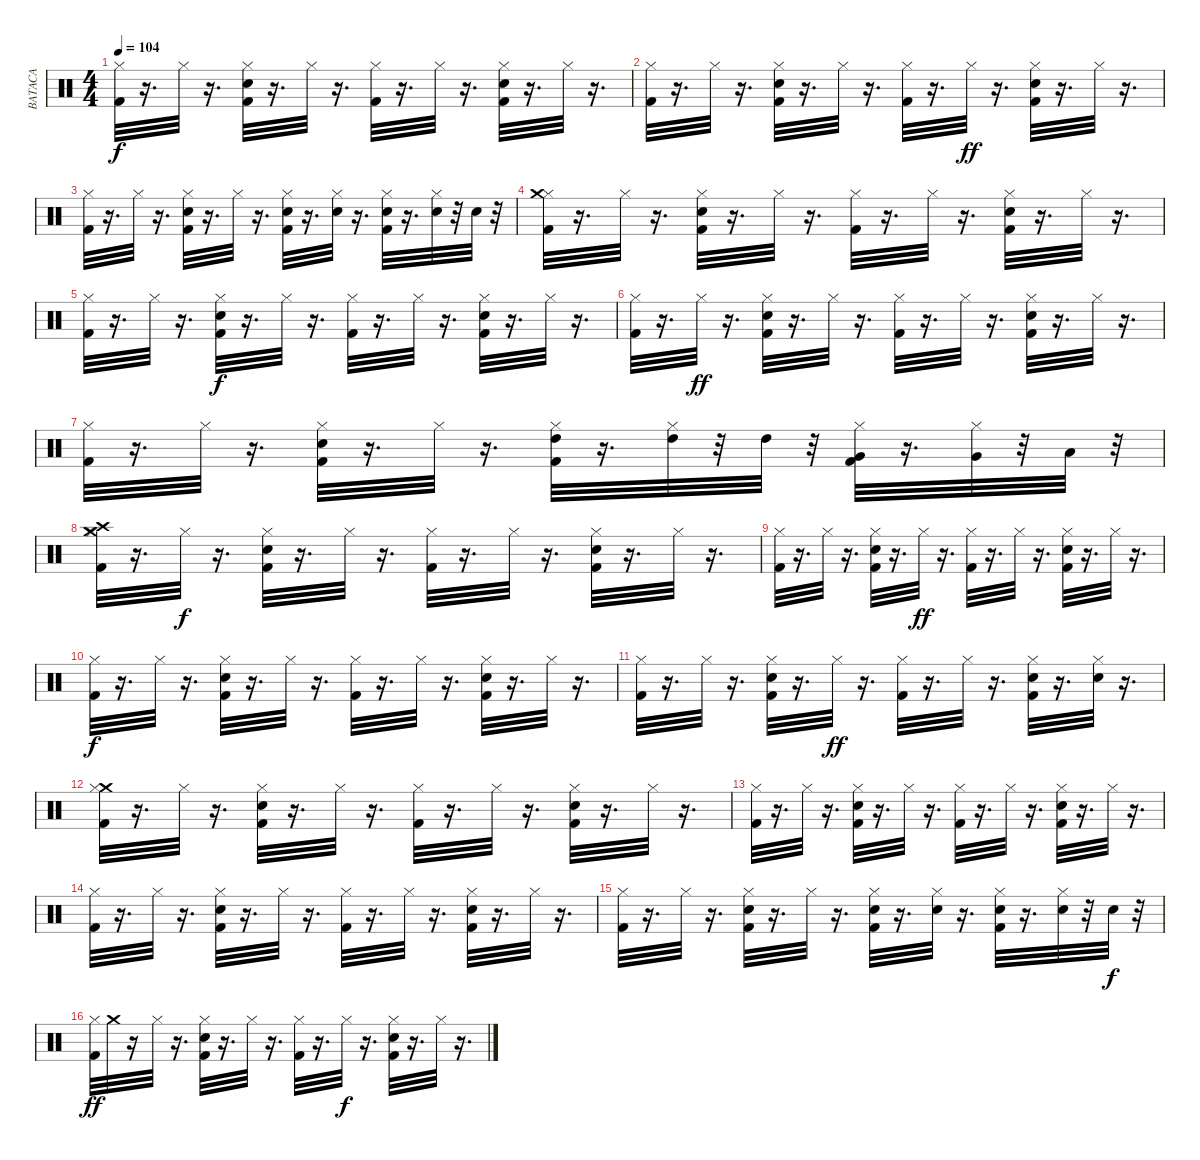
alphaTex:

\track ("BATACA" "BATACA") {instrument percussion}
\staff {score}
\articulation defaults
\ts (4 4)
\tempo 104
\clef neutral
\ks c
("Hi-Hat (closed)" "Kick (hit) 2").32{dy f} r.16{d} "Hi-Hat (closed)".32 r.16{d} ("Hi-Hat (closed)" "Kick (hit) 2" "Electric Snare (hit)").32 r.16{d} "Hi-Hat (closed)".32 r.16{d} ("Hi-Hat (closed)" "Kick (hit) 2").32 r.16{d} "Hi-Hat (closed)".32 r.16{d} ("Hi-Hat (closed)" "Kick (hit) 2" "Electric Snare (hit)").32 r.16{d} "Hi-Hat (closed)".32 r.16{d} |
("Hi-Hat (closed)" "Kick (hit) 2").32 r.16{d} "Hi-Hat (closed)".32 r.16{d} ("Hi-Hat (closed)" "Kick (hit) 2" "Electric Snare (hit)").32 r.16{d} "Hi-Hat (closed)".32 r.16{d} ("Hi-Hat (closed)" "Kick (hit) 2").32 r.16{d} "Hi-Hat (closed)".32{dy ff} r.16{d} ("Hi-Hat (closed)" "Kick (hit) 2" "Electric Snare (hit)").32 r.16{d} "Hi-Hat (closed)".32 r.16{d} |
("Hi-Hat (closed)" "Kick (hit) 2").32 r.16{d} "Hi-Hat (closed)".32 r.16{d} ("Hi-Hat (closed)" "Kick (hit) 2" "Electric Snare (hit)").32 r.16{d} "Hi-Hat (closed)".32 r.16{d} ("Hi-Hat (closed)" "Kick (hit) 2" "Electric Snare (hit)").32 r.16{d} ("Hi-Hat (closed)" "Electric Snare (hit)").32 r.16{d} ("Hi-Hat (closed)" "Kick (hit) 2" "Electric Snare (hit)").32 r.16{d} ("Hi-Hat (closed)" "Electric Snare (hit)").32 r.32 "Electric Snare (hit)".32 r.32 |
("Hi-Hat (closed)" "Kick (hit) 2" "Crash medium (hit)").32 r.16{d} "Hi-Hat (closed)".32 r.16{d} ("Hi-Hat (closed)" "Kick (hit) 2" "Electric Snare (hit)").32 r.16{d} "Hi-Hat (closed)".32 r.16{d} ("Hi-Hat (closed)" "Kick (hit) 2").32 r.16{d} "Hi-Hat (closed)".32 r.16{d} ("Hi-Hat (closed)" "Kick (hit) 2" "Electric Snare (hit)").32 r.16{d} "Hi-Hat (closed)".32 r.16{d} |
("Hi-Hat (closed)" "Kick (hit) 2").32 r.16{d} "Hi-Hat (closed)".32 r.16{d} ("Hi-Hat (closed)" "Kick (hit) 2" "Electric Snare (hit)").32{dy f} r.16{d} "Hi-Hat (closed)".32 r.16{d} ("Hi-Hat (closed)" "Kick (hit) 2").32 r.16{d} "Hi-Hat (closed)".32 r.16{d} ("Hi-Hat (closed)" "Kick (hit) 2" "Electric Snare (hit)").32 r.16{d} "Hi-Hat (closed)".32 r.16{d} |
("Hi-Hat (closed)" "Kick (hit) 2").32 r.16{d} "Hi-Hat (closed)".32{dy ff} r.16{d} ("Hi-Hat (closed)" "Kick (hit) 2" "Electric Snare (hit)").32 r.16{d} "Hi-Hat (closed)".32 r.16{d} ("Hi-Hat (closed)" "Kick (hit) 2").32 r.16{d} "Hi-Hat (closed)".32 r.16{d} ("Hi-Hat (closed)" "Kick (hit) 2" "Electric Snare (hit)").32 r.16{d} "Hi-Hat (closed)".32 r.16{d} |
("Hi-Hat (closed)" "Kick (hit) 2").32 r.16{d} "Hi-Hat (closed)".32 r.16{d} ("Hi-Hat (closed)" "Kick (hit) 2" "Electric Snare (hit)").32 r.16{d} "Hi-Hat (closed)".32 r.16{d} ("Hi-Hat (closed)" "Kick (hit) 2" "High Tom (hit)").32 r.16{d} ("Hi-Hat (closed)" "High Tom (hit)").32 r.32 "High Tom (hit)".32 r.32 ("Hi-Hat (closed)" "Kick (hit) 2" "Very Low Tom (hit)").32 r.16{d} ("Hi-Hat (closed)" "Very Low Tom (hit)").32 r.32 "Low Floor Tom (hit)".32 r.32 |
("Hi-Hat (closed)" "Kick (hit) 2" "Crash medium (hit)" "Crash high (hit)").32 r.16{d} "Hi-Hat (closed)".32{dy f} r.16{d} ("Hi-Hat (closed)" "Kick (hit) 2" "Electric Snare (hit)").32 r.16{d} "Hi-Hat (closed)".32 r.16{d} ("Hi-Hat (closed)" "Kick (hit) 2").32 r.16{d} "Hi-Hat (closed)".32 r.16{d} ("Hi-Hat (closed)" "Kick (hit) 2" "Electric Snare (hit)").32 r.16{d} "Hi-Hat (closed)".32 r.16{d} |
("Hi-Hat (closed)" "Kick (hit) 2").32 r.16{d} "Hi-Hat (closed)".32 r.16{d} ("Hi-Hat (closed)" "Kick (hit) 2" "Electric Snare (hit)").32 r.16{d} "Hi-Hat (closed)".32{dy ff} r.16{d} ("Hi-Hat (closed)" "Kick (hit) 2").32 r.16{d} "Hi-Hat (closed)".32 r.16{d} ("Hi-Hat (closed)" "Kick (hit) 2" "Electric Snare (hit)").32 r.16{d} "Hi-Hat (closed)".32 r.16{d} |
("Hi-Hat (closed)" "Kick (hit) 2").32{dy f} r.16{d} "Hi-Hat (closed)".32 r.16{d} ("Hi-Hat (closed)" "Kick (hit) 2" "Electric Snare (hit)").32 r.16{d} "Hi-Hat (closed)".32 r.16{d} ("Hi-Hat (closed)" "Kick (hit) 2").32 r.16{d} "Hi-Hat (closed)".32 r.16{d} ("Hi-Hat (closed)" "Kick (hit) 2" "Electric Snare (hit)").32 r.16{d} "Hi-Hat (closed)".32 r.16{d} |
("Hi-Hat (closed)" "Kick (hit) 2").32 r.16{d} "Hi-Hat (closed)".32 r.16{d} ("Hi-Hat (closed)" "Kick (hit) 2" "Electric Snare (hit)").32 r.16{d} "Hi-Hat (closed)".32{dy ff} r.16{d} ("Hi-Hat (closed)" "Kick (hit) 2").32 r.16{d} "Hi-Hat (closed)".32 r.16{d} ("Hi-Hat (closed)" "Kick (hit) 2" "Electric Snare (hit)").32 r.16{d} ("Hi-Hat (closed)" "Electric Snare (hit)").32 r.16{d} |
("Crash medium (hit)" "Hi-Hat (closed)" "Kick (hit) 2").32 r.16{d} "Hi-Hat (closed)".32 r.16{d} ("Hi-Hat (closed)" "Kick (hit) 2" "Electric Snare (hit)").32 r.16{d} "Hi-Hat (closed)".32 r.16{d} ("Hi-Hat (closed)" "Kick (hit) 2").32 r.16{d} "Hi-Hat (closed)".32 r.16{d} ("Hi-Hat (closed)" "Kick (hit) 2" "Electric Snare (hit)").32 r.16{d} "Hi-Hat (closed)".32 r.16{d} |
("Hi-Hat (closed)" "Kick (hit) 2").32 r.16{d} "Hi-Hat (closed)".32 r.16{d} ("Hi-Hat (closed)" "Kick (hit) 2" "Electric Snare (hit)").32 r.16{d} "Hi-Hat (closed)".32 r.16{d} ("Hi-Hat (closed)" "Kick (hit) 2").32 r.16{d} "Hi-Hat (closed)".32 r.16{d} ("Hi-Hat (closed)" "Kick (hit) 2" "Electric Snare (hit)").32 r.16{d} "Hi-Hat (closed)".32 r.16{d} |
("Hi-Hat (closed)" "Kick (hit) 2").32 r.16{d} "Hi-Hat (closed)".32 r.16{d} ("Hi-Hat (closed)" "Kick (hit) 2" "Electric Snare (hit)").32 r.16{d} "Hi-Hat (closed)".32 r.16{d} ("Hi-Hat (closed)" "Kick (hit) 2").32 r.16{d} "Hi-Hat (closed)".32 r.16{d} ("Hi-Hat (closed)" "Kick (hit) 2" "Electric Snare (hit)").32 r.16{d} "Hi-Hat (closed)".32 r.16{d} |
("Hi-Hat (closed)" "Kick (hit) 2").32 r.16{d} "Hi-Hat (closed)".32 r.16{d} ("Hi-Hat (closed)" "Kick (hit) 2" "Electric Snare (hit)").32 r.16{d} "Hi-Hat (closed)".32 r.16{d} ("Hi-Hat (closed)" "Kick (hit) 2" "Electric Snare (hit)").32 r.16{d} ("Hi-Hat (closed)" "Electric Snare (hit)").32 r.16{d} ("Hi-Hat (closed)" "Kick (hit) 2" "Electric Snare (hit)").32 r.16{d} ("Hi-Hat (closed)" "Electric Snare (hit)").32 r.32 "Electric Snare (hit)".32{dy f} r.32 |
("Hi-Hat (closed)" "Kick (hit) 2").32{dy ff} "Crash medium (hit)".32 r.16 "Hi-Hat (closed)".32 r.16{d} ("Hi-Hat (closed)" "Kick (hit) 2" "Electric Snare (hit)").32 r.16{d} "Hi-Hat (closed)".32 r.16{d} ("Hi-Hat (closed)" "Kick (hit) 2").32 r.16{d} "Hi-Hat (closed)".32{dy f} r.16{d} ("Hi-Hat (closed)" "Kick (hit) 2" "Electric Snare (hit)").32 r.16{d} "Hi-Hat (closed)".32 r.16{d}
